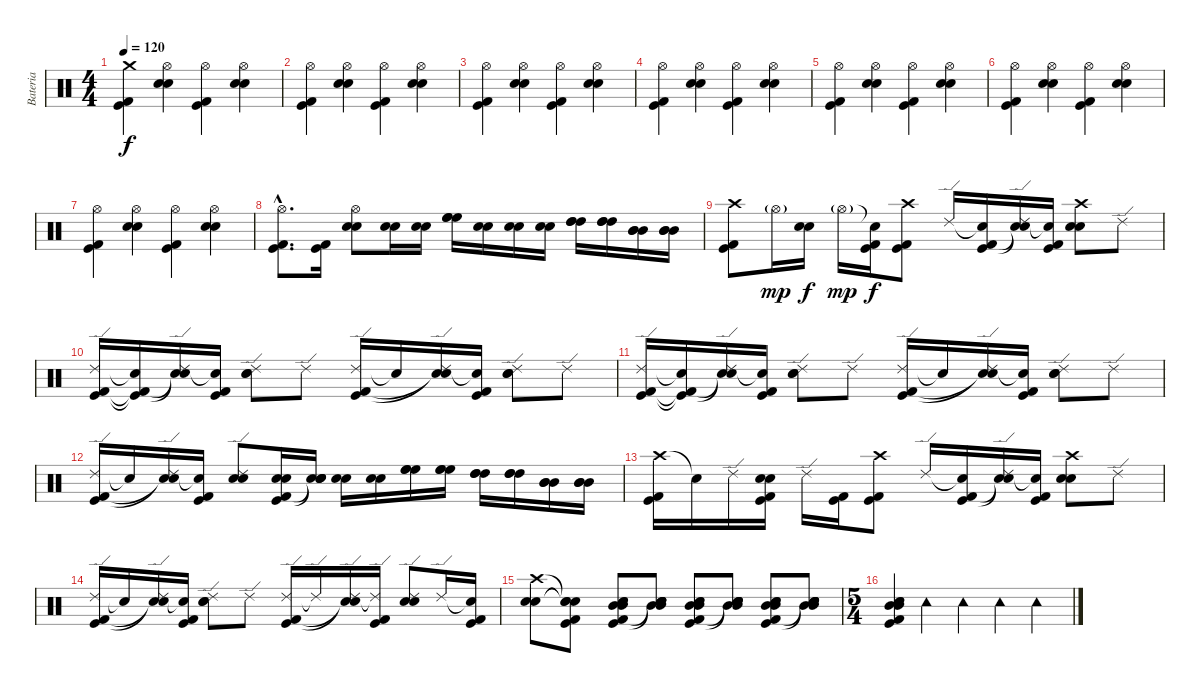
\track ("Bateria" "Bateria") {instrument percussion}
\staff {score}
\articulation defaults
\ts (4 4)
\tempo 120
\clef neutral
\ks c
("Crash medium (hit)" "Kick (hit)" "Kick (hit) 2").4{dy f} ("Hi-Hat (open)" "Electric Snare (hit)" "Snare (hit) 2").4 ("Hi-Hat (open)" "Kick (hit)" "Kick (hit) 2").4 ("Hi-Hat (open)" "Electric Snare (hit)" "Snare (hit) 2").4 |
("Hi-Hat (open)" "Kick (hit)" "Kick (hit) 2").4 ("Hi-Hat (open)" "Electric Snare (hit)" "Snare (hit) 2").4 ("Hi-Hat (open)" "Kick (hit)" "Kick (hit) 2").4 ("Hi-Hat (open)" "Electric Snare (hit)" "Snare (hit) 2").4 |
("Hi-Hat (open)" "Kick (hit)" "Kick (hit) 2").4 ("Hi-Hat (open)" "Electric Snare (hit)" "Snare (hit) 2").4 ("Hi-Hat (open)" "Kick (hit)" "Kick (hit) 2").4 ("Hi-Hat (open)" "Electric Snare (hit)" "Snare (hit) 2").4 |
("Hi-Hat (open)" "Kick (hit)" "Kick (hit) 2").4 ("Hi-Hat (open)" "Electric Snare (hit)" "Snare (hit) 2").4 ("Hi-Hat (open)" "Kick (hit)" "Kick (hit) 2").4 ("Hi-Hat (open)" "Electric Snare (hit)" "Snare (hit) 2").4 |
("Hi-Hat (open)" "Kick (hit)" "Kick (hit) 2").4 ("Hi-Hat (open)" "Electric Snare (hit)" "Snare (hit) 2").4 ("Hi-Hat (open)" "Kick (hit)" "Kick (hit) 2").4 ("Hi-Hat (open)" "Electric Snare (hit)" "Snare (hit) 2").4 |
("Hi-Hat (open)" "Kick (hit)" "Kick (hit) 2").4 ("Hi-Hat (open)" "Electric Snare (hit)" "Snare (hit) 2").4 ("Hi-Hat (open)" "Kick (hit)" "Kick (hit) 2").4 ("Hi-Hat (open)" "Electric Snare (hit)" "Snare (hit) 2").4 |
("Hi-Hat (open)" "Kick (hit)" "Kick (hit) 2").4 ("Hi-Hat (open)" "Electric Snare (hit)" "Snare (hit) 2").4 ("Hi-Hat (open)" "Kick (hit)" "Kick (hit) 2").4 ("Hi-Hat (open)" "Electric Snare (hit)" "Snare (hit) 2").4 |
("Hi-Hat (open)"{hac} "Kick (hit) 2"{hac} "Kick (hit)"{hac}).8{d} ("Kick (hit)" "Kick (hit) 2").16 ("Hi-Hat (open)" "Electric Snare (hit)" "Snare (hit) 2").8 ("Electric Snare (hit)" "Snare (hit) 2").16 ("Electric Snare (hit)" "Snare (hit) 2").16 ("High Floor Tom (hit)" "High Floor Tom (hit)" "High Floor Tom (hit)").16 ("Electric Snare (hit)" "Snare (hit) 2").16 ("Electric Snare (hit)" "Snare (hit) 2").16 ("Electric Snare (hit)" "Snare (hit) 2").16 ("High Tom (hit)" "High Tom (hit)" "High Tom (hit)").16 ("High Tom (hit)" "High Tom (hit)" "High Tom (hit)").16 ("Mid Tom (hit)" "Mid Tom (hit)" "Mid Tom (hit)").16 ("Mid Tom (hit)" "Mid Tom (hit)" "Mid Tom (hit)").16 |
("Crash high (hit)" "Kick (hit)" "Kick (hit) 2").8 "Hi-Hat (open)"{g}.16{dy mp} ("Electric Snare (hit)" "Snare (hit) 2").16{dy f} "Hi-Hat (open)"{g}.16{dy mp} ("Snare (hit)"{t} "Kick (hit)" "Kick (hit) 2").16{dy f} ("Crash high (hit)" "Kick (hit) 2" "Kick (hit)").8 "Ride (edge) 2".16 ("Snare (hit)"{t} "Kick (hit)" "Kick (hit) 2").16 ("Ride (edge) 2" "Snare (hit)"{t} "Snare (hit)"{t}).16 ("Snare (hit)"{t} "Kick (hit)" "Kick (hit) 2").16 ("Crash high (hit)" "Snare (hit) 2" "Electric Snare (hit)").8 "Ride (edge) 2".8 |
("Ride (edge) 2" "Kick (hit)" "Kick (hit) 2").16 ("Snare (hit)"{t} "Kick (hit)"{t} "Kick (hit) 2"{t}).16 ("Ride (edge) 2" "Snare (hit)"{t} "Snare (hit)"{t}).16 ("Snare (hit)"{t} "Kick (hit)" "Kick (hit) 2").16 ("Ride (edge) 2" "Electric Snare (hit)" "Snare (hit) 2").8 "Ride (edge) 2".8 ("Ride (edge) 2" "Kick (hit)" "Kick (hit) 2").16 "Snare (hit)"{t}.16 ("Ride (edge) 2" "Snare (hit)"{t} "Snare (hit)"{t}).16 ("Snare (hit)"{t} "Kick (hit) 2" "Kick (hit)").16 ("Ride (edge) 2" "Electric Snare (hit)" "Snare (hit) 2").8 "Ride (edge) 2".8 |
("Ride (edge) 2" "Kick (hit)" "Kick (hit) 2").16 ("Snare (hit)"{t} "Kick (hit)"{t} "Kick (hit) 2"{t}).16 ("Ride (edge) 2" "Snare (hit)"{t} "Snare (hit)"{t}).16 ("Snare (hit)"{t} "Kick (hit)" "Kick (hit) 2").16 ("Ride (edge) 2" "Electric Snare (hit)" "Snare (hit) 2").8 "Ride (edge) 2".8 ("Ride (edge) 2" "Kick (hit)" "Kick (hit) 2").16 "Snare (hit)"{t}.16 ("Ride (edge) 2" "Snare (hit)"{t} "Snare (hit)"{t}).16 ("Snare (hit)"{t} "Kick (hit) 2" "Kick (hit)").16 ("Ride (edge) 2" "Electric Snare (hit)" "Snare (hit) 2").8 "Ride (edge) 2".8 |
("Ride (edge) 2" "Kick (hit)" "Kick (hit) 2").16 "Snare (hit)"{t}.16 ("Ride (edge) 2" "Snare (hit)"{t} "Snare (hit)"{t}).16 ("Snare (hit)"{t} "Kick (hit) 2" "Kick (hit)").16 ("Ride (edge) 2" "Electric Snare (hit)" "Snare (hit) 2").8 ("Electric Snare (hit)" "Snare (hit) 2" "Kick (hit)" "Kick (hit) 2").16 ("Electric Snare (hit)" "Snare (hit) 2" "Snare (hit)"{t} "Snare (hit)"{t}).16 ("Electric Snare (hit)" "Snare (hit) 2").16 ("Electric Snare (hit)" "Snare (hit) 2").16 ("High Floor Tom (hit)" "High Floor Tom (hit)" "High Floor Tom (hit)").16 ("High Floor Tom (hit)" "High Floor Tom (hit)" "High Floor Tom (hit)").16 ("High Tom (hit)" "High Tom (hit)" "High Tom (hit)").16 ("High Tom (hit)" "High Tom (hit)" "High Tom (hit)").16 ("Mid Tom (hit)" "Mid Tom (hit)" "Mid Tom (hit)").16 ("Mid Tom (hit)" "Mid Tom (hit)" "Mid Tom (hit)").16 |
("Crash high (hit)" "Kick (hit)" "Kick (hit) 2").16 "Snare (hit)"{t}.16 "Ride (edge) 2".16 ("Electric Snare (hit)" "Snare (hit) 2" "Kick (hit)" "Kick (hit) 2").16 "Ride (edge) 2".16 ("Kick (hit)" "Kick (hit) 2").16 ("Crash high (hit)" "Kick (hit) 2" "Kick (hit)").8 "Ride (edge) 2".16 ("Snare (hit)"{t} "Kick (hit)" "Kick (hit) 2").16 ("Ride (edge) 2" "Snare (hit)"{t} "Snare (hit)"{t}).16 ("Snare (hit)"{t} "Kick (hit)" "Kick (hit) 2").16 ("Crash high (hit)" "Electric Snare (hit)" "Snare (hit) 2").8 "Ride (edge) 2".8 |
("Ride (edge) 2" "Kick (hit)" "Kick (hit) 2").16 "Snare (hit)"{t}.16 ("Ride (edge) 2" "Snare (hit)"{t} "Snare (hit)"{t}).16 ("Snare (hit)"{t} "Kick (hit)" "Kick (hit) 2").16 ("Ride (edge) 2" "Electric Snare (hit)" "Snare (hit) 2").8 "Ride (edge) 2".8 ("Ride (edge) 2" "Kick (hit) 2" "Kick (hit)").16 "Ride (edge) 2"{t}.16 ("Ride (edge) 2" "Snare (hit)"{t} "Snare (hit)"{t}).16 ("Ride (edge) 2"{t} "Kick (hit)" "Kick (hit) 2").16 ("Ride (edge) 2" "Electric Snare (hit)" "Snare (hit) 2").8 "Ride (edge) 2".16 ("Snare (hit)"{t} "Kick (hit)" "Kick (hit) 2").16 |
("Crash high (hit)" "Electric Snare (hit)" "Snare (hit) 2").8 ("Snare (hit)"{t} "Snare (hit)"{t} "Snare (hit)"{t} "Kick (hit)" "Kick (hit) 2").8 ("Mid Tom (hit)" "Electric Snare (hit)" "Snare (hit) 2" "Mid Tom (hit)" "Kick (hit)" "Kick (hit) 2").8 ("Mid Tom (hit)" "Electric Snare (hit)" "Snare (hit) 2" "Mid Tom (hit)" "Snare (hit)"{t} "Snare (hit)"{t}).8 ("Electric Snare (hit)" "Snare (hit) 2" "Mid Tom (hit)" "Mid Tom (hit)" "Kick (hit)" "Kick (hit) 2").8 ("Electric Snare (hit)" "Snare (hit) 2" "Mid Tom (hit)" "Mid Tom (hit)" "Snare (hit)"{t} "Snare (hit)"{t}).8 ("Electric Snare (hit)" "Snare (hit) 2" "Mid Tom (hit)" "Mid Tom (hit)" "Kick (hit)" "Kick (hit) 2").8 ("Electric Snare (hit)" "Snare (hit) 2" "Mid Tom (hit)" "Mid Tom (hit)" "Snare (hit)"{t} "Snare (hit)"{t}).8 |
\ts (5 4)
("Electric Snare (hit)" "Snare (hit) 2" "Mid Tom (hit)" "Mid Tom (hit)" "Kick (hit)" "Kick (hit) 2").4 "Tambourine (hit)".4 "Tambourine (hit)".4 "Tambourine (hit)".4 "Tambourine (hit)".4
